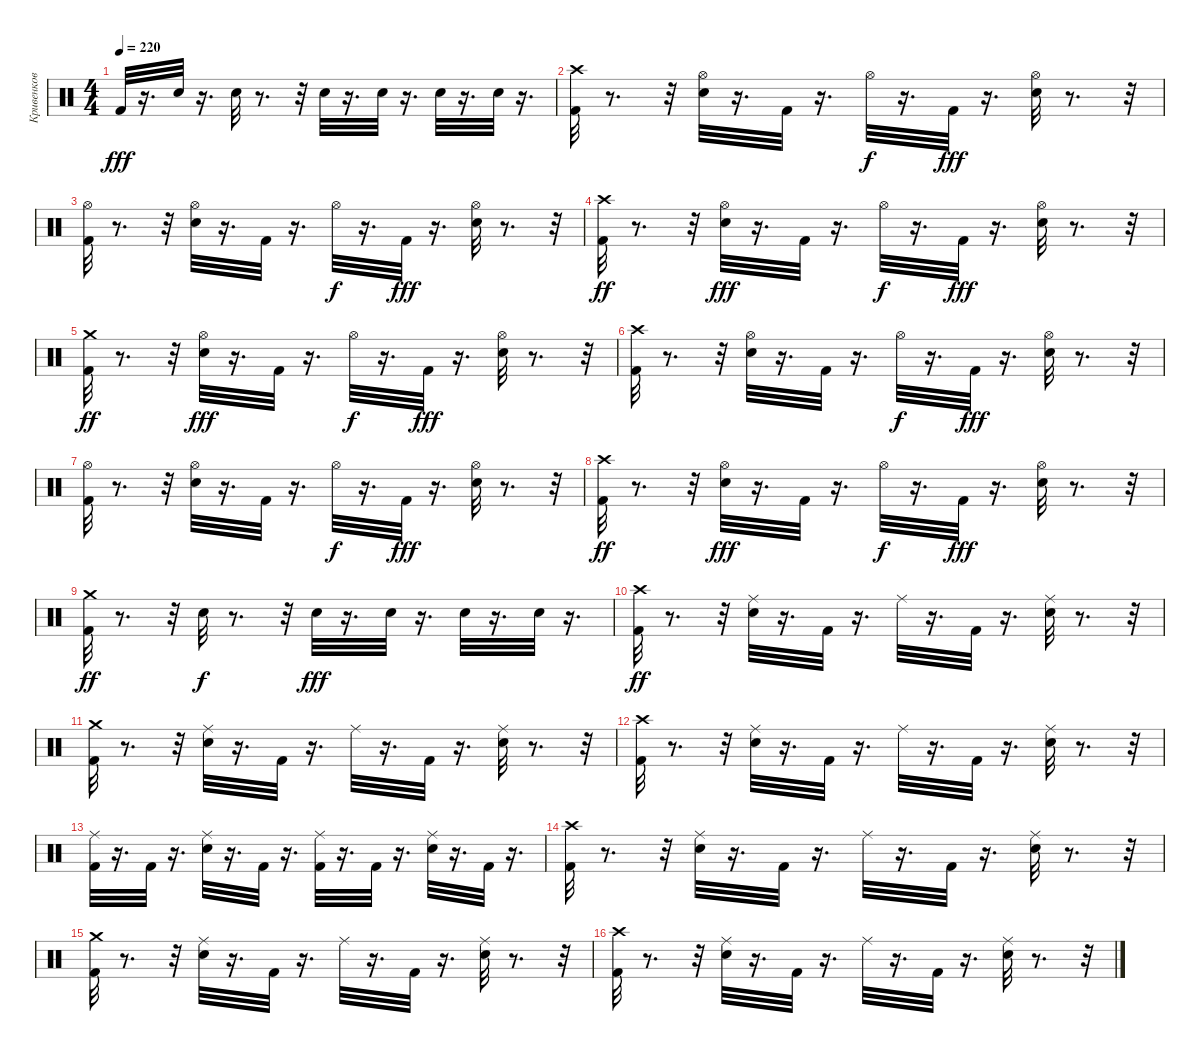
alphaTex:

\track ("Кривенков" "Кривенков") {instrument percussion}
\staff {score}
\articulation defaults
\ts (4 4)
\tempo 220
\clef neutral
\ks c "Kick (hit) 2".32{dy fff}
r.16{d} "Electric Snare (hit)".32 r.16{d} "Electric Snare (hit)".32 r.8{d} r.32 "Electric Snare (hit)".32 r.16{d} "Electric Snare (hit)".32 r.16{d} "Electric Snare (hit)".32 r.16{d} "Electric Snare (hit)".32 r.16{d} |
("Crash high (hit)" "Kick (hit) 2").32 r.8{d} r.32 ("Hi-Hat (open)" "Electric Snare (hit)").32 r.16{d} "Kick (hit) 2".32 r.16{d} "Hi-Hat (open)".32{dy f} r.16{d} "Kick (hit) 2".32{dy fff} r.16{d} ("Hi-Hat (open)" "Electric Snare (hit)").32 r.8{d} r.32 |
("Hi-Hat (open)" "Kick (hit) 2").32 r.8{d} r.32 ("Hi-Hat (open)" "Electric Snare (hit)").32 r.16{d} "Kick (hit) 2".32 r.16{d} "Hi-Hat (open)".32{dy f} r.16{d} "Kick (hit) 2".32{dy fff} r.16{d} ("Hi-Hat (open)" "Electric Snare (hit)").32 r.8{d} r.32 |
("Kick (hit) 2" "Crash high (hit)").32{dy ff} r.8{d} r.32 ("Electric Snare (hit)" "Hi-Hat (open)").32{dy fff} r.16{d} "Kick (hit) 2".32 r.16{d} "Hi-Hat (open)".32{dy f} r.16{d} "Kick (hit) 2".32{dy fff} r.16{d} ("Electric Snare (hit)" "Hi-Hat (open)").32 r.8{d} r.32 |
("Kick (hit) 2" "Crash medium (hit)").32{dy ff} r.8{d} r.32 ("Electric Snare (hit)" "Hi-Hat (open)").32{dy fff} r.16{d} "Kick (hit) 2".32 r.16{d} "Hi-Hat (open)".32{dy f} r.16{d} "Kick (hit) 2".32{dy fff} r.16{d} ("Electric Snare (hit)" "Hi-Hat (open)").32 r.8{d} r.32 |
("Crash high (hit)" "Kick (hit) 2").32 r.8{d} r.32 ("Hi-Hat (open)" "Electric Snare (hit)").32 r.16{d} "Kick (hit) 2".32 r.16{d} "Hi-Hat (open)".32{dy f} r.16{d} "Kick (hit) 2".32{dy fff} r.16{d} ("Hi-Hat (open)" "Electric Snare (hit)").32 r.8{d} r.32 |
("Hi-Hat (open)" "Kick (hit) 2").32 r.8{d} r.32 ("Hi-Hat (open)" "Electric Snare (hit)").32 r.16{d} "Kick (hit) 2".32 r.16{d} "Hi-Hat (open)".32{dy f} r.16{d} "Kick (hit) 2".32{dy fff} r.16{d} ("Hi-Hat (open)" "Electric Snare (hit)").32 r.8{d} r.32 |
("Kick (hit) 2" "Crash high (hit)").32{dy ff} r.8{d} r.32 ("Electric Snare (hit)" "Hi-Hat (open)").32{dy fff} r.16{d} "Kick (hit) 2".32 r.16{d} "Hi-Hat (open)".32{dy f} r.16{d} "Kick (hit) 2".32{dy fff} r.16{d} ("Electric Snare (hit)" "Hi-Hat (open)").32 r.8{d} r.32 |
("Kick (hit) 2" "Crash medium (hit)").32{dy ff} r.8{d} r.32 "Electric Snare (hit)".32{dy f} r.8{d} r.32 "Electric Snare (hit)".32{dy fff} r.16{d} "Electric Snare (hit)".32 r.16{d} "Electric Snare (hit)".32 r.16{d} "Electric Snare (hit)".32 r.16{d} |
("Kick (hit) 2" "Crash high (hit)").32{dy ff} r.8{d} r.32 ("Ride (middle)" "Electric Snare (hit)").32 r.16{d} "Kick (hit) 2".32 r.16{d} "Ride (middle)".32 r.16{d} "Kick (hit) 2".32 r.16{d} ("Ride (middle)" "Electric Snare (hit)").32 r.8{d} r.32 |
("Crash medium (hit)" "Kick (hit) 2").32 r.8{d} r.32 ("Electric Snare (hit)" "Ride (middle)").32 r.16{d} "Kick (hit) 2".32 r.16{d} "Ride (middle)".32 r.16{d} "Kick (hit) 2".32 r.16{d} ("Electric Snare (hit)" "Ride (middle)").32 r.8{d} r.32 |
("Kick (hit) 2" "Crash high (hit)").32 r.8{d} r.32 ("Electric Snare (hit)" "Ride (middle)").32 r.16{d} "Kick (hit) 2".32 r.16{d} "Ride (middle)".32 r.16{d} "Kick (hit) 2".32 r.16{d} ("Electric Snare (hit)" "Ride (middle)").32 r.8{d} r.32 |
("Ride (middle)" "Kick (hit) 2").32 r.16{d} "Kick (hit) 2".32 r.16{d} ("Ride (middle)" "Electric Snare (hit)").32 r.16{d} "Kick (hit) 2".32 r.16{d} ("Ride (middle)" "Kick (hit) 2").32 r.16{d} "Kick (hit) 2".32 r.16{d} ("Ride (middle)" "Electric Snare (hit)").32 r.16{d} "Kick (hit) 2".32 r.16{d} |
("Kick (hit) 2" "Crash high (hit)").32 r.8{d} r.32 ("Ride (middle)" "Electric Snare (hit)").32 r.16{d} "Kick (hit) 2".32 r.16{d} "Ride (middle)".32 r.16{d} "Kick (hit) 2".32 r.16{d} ("Ride (middle)" "Electric Snare (hit)").32 r.8{d} r.32 |
("Crash medium (hit)" "Kick (hit) 2").32 r.8{d} r.32 ("Electric Snare (hit)" "Ride (middle)").32 r.16{d} "Kick (hit) 2".32 r.16{d} "Ride (middle)".32 r.16{d} "Kick (hit) 2".32 r.16{d} ("Electric Snare (hit)" "Ride (middle)").32 r.8{d} r.32 |
("Kick (hit) 2" "Crash high (hit)").32 r.8{d} r.32 ("Electric Snare (hit)" "Ride (middle)").32 r.16{d} "Kick (hit) 2".32 r.16{d} "Ride (middle)".32 r.16{d} "Kick (hit) 2".32 r.16{d} ("Electric Snare (hit)" "Ride (middle)").32 r.8{d} r.32
